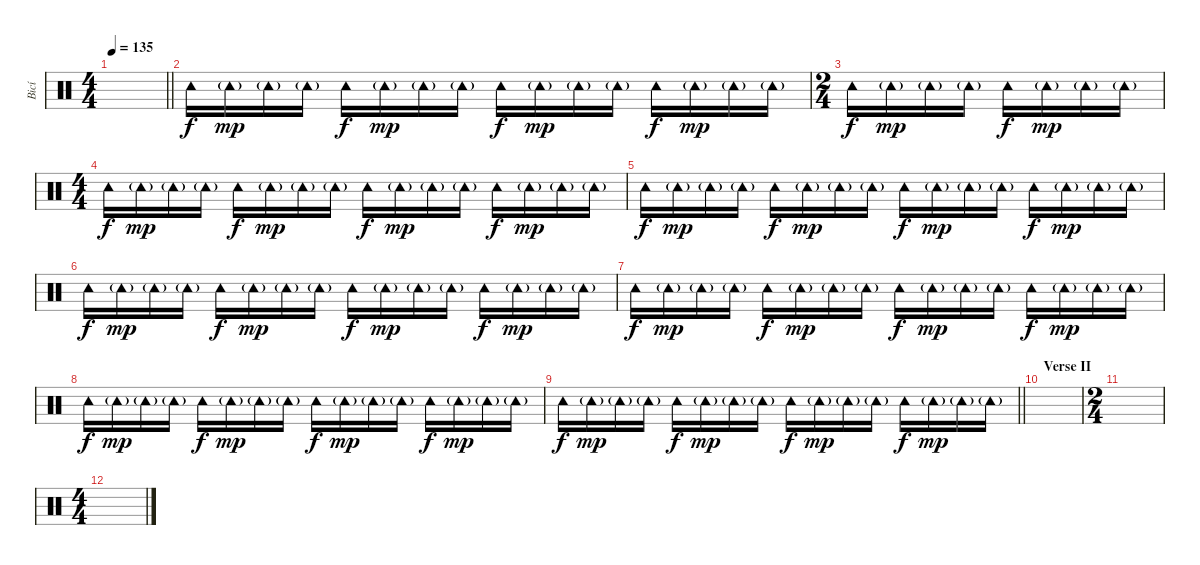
\track ("Bicí" "Bicí") {instrument percussion}
\staff {score}
\articulation defaults
\ts (4 4)
\tempo 135
\clef neutral
\barLineRight lightlight
\ks c
|
\section ("" "")
"Tambourine (hit)".16{dy f} "Tambourine (hit)"{g}.16{dy mp} "Tambourine (hit)"{g}.16 "Tambourine (hit)"{g}.16 "Tambourine (hit)".16{dy f} "Tambourine (hit)"{g}.16{dy mp} "Tambourine (hit)"{g}.16 "Tambourine (hit)"{g}.16 "Tambourine (hit)".16{dy f} "Tambourine (hit)"{g}.16{dy mp} "Tambourine (hit)"{g}.16 "Tambourine (hit)"{g}.16 "Tambourine (hit)".16{dy f} "Tambourine (hit)"{g}.16{dy mp} "Tambourine (hit)"{g}.16 "Tambourine (hit)"{g}.16 |
\ts (2 4)
"Tambourine (hit)".16{dy f} "Tambourine (hit)"{g}.16{dy mp} "Tambourine (hit)"{g}.16 "Tambourine (hit)"{g}.16 "Tambourine (hit)".16{dy f} "Tambourine (hit)"{g}.16{dy mp} "Tambourine (hit)"{g}.16 "Tambourine (hit)"{g}.16 |
\ts (4 4)
"Tambourine (hit)".16{dy f} "Tambourine (hit)"{g}.16{dy mp} "Tambourine (hit)"{g}.16 "Tambourine (hit)"{g}.16 "Tambourine (hit)".16{dy f} "Tambourine (hit)"{g}.16{dy mp} "Tambourine (hit)"{g}.16 "Tambourine (hit)"{g}.16 "Tambourine (hit)".16{dy f} "Tambourine (hit)"{g}.16{dy mp} "Tambourine (hit)"{g}.16 "Tambourine (hit)"{g}.16 "Tambourine (hit)".16{dy f} "Tambourine (hit)"{g}.16{dy mp} "Tambourine (hit)"{g}.16 "Tambourine (hit)"{g}.16 |
"Tambourine (hit)".16{dy f} "Tambourine (hit)"{g}.16{dy mp} "Tambourine (hit)"{g}.16 "Tambourine (hit)"{g}.16 "Tambourine (hit)".16{dy f} "Tambourine (hit)"{g}.16{dy mp} "Tambourine (hit)"{g}.16 "Tambourine (hit)"{g}.16 "Tambourine (hit)".16{dy f} "Tambourine (hit)"{g}.16{dy mp} "Tambourine (hit)"{g}.16 "Tambourine (hit)"{g}.16 "Tambourine (hit)".16{dy f} "Tambourine (hit)"{g}.16{dy mp} "Tambourine (hit)"{g}.16 "Tambourine (hit)"{g}.16 |
"Tambourine (hit)".16{dy f} "Tambourine (hit)"{g}.16{dy mp} "Tambourine (hit)"{g}.16 "Tambourine (hit)"{g}.16 "Tambourine (hit)".16{dy f} "Tambourine (hit)"{g}.16{dy mp} "Tambourine (hit)"{g}.16 "Tambourine (hit)"{g}.16 "Tambourine (hit)".16{dy f} "Tambourine (hit)"{g}.16{dy mp} "Tambourine (hit)"{g}.16 "Tambourine (hit)"{g}.16 "Tambourine (hit)".16{dy f} "Tambourine (hit)"{g}.16{dy mp} "Tambourine (hit)"{g}.16 "Tambourine (hit)"{g}.16 |
"Tambourine (hit)".16{dy f} "Tambourine (hit)"{g}.16{dy mp} "Tambourine (hit)"{g}.16 "Tambourine (hit)"{g}.16 "Tambourine (hit)".16{dy f} "Tambourine (hit)"{g}.16{dy mp} "Tambourine (hit)"{g}.16 "Tambourine (hit)"{g}.16 "Tambourine (hit)".16{dy f} "Tambourine (hit)"{g}.16{dy mp} "Tambourine (hit)"{g}.16 "Tambourine (hit)"{g}.16 "Tambourine (hit)".16{dy f} "Tambourine (hit)"{g}.16{dy mp} "Tambourine (hit)"{g}.16 "Tambourine (hit)"{g}.16 |
"Tambourine (hit)".16{dy f} "Tambourine (hit)"{g}.16{dy mp} "Tambourine (hit)"{g}.16 "Tambourine (hit)"{g}.16 "Tambourine (hit)".16{dy f} "Tambourine (hit)"{g}.16{dy mp} "Tambourine (hit)"{g}.16 "Tambourine (hit)"{g}.16 "Tambourine (hit)".16{dy f} "Tambourine (hit)"{g}.16{dy mp} "Tambourine (hit)"{g}.16 "Tambourine (hit)"{g}.16 "Tambourine (hit)".16{dy f} "Tambourine (hit)"{g}.16{dy mp} "Tambourine (hit)"{g}.16 "Tambourine (hit)"{g}.16 |
\barLineRight lightlight "Tambourine (hit)".16{dy f} "Tambourine (hit)"{g}.16{dy mp} "Tambourine (hit)"{g}.16 "Tambourine (hit)"{g}.16 "Tambourine (hit)".16{dy f} "Tambourine (hit)"{g}.16{dy mp} "Tambourine (hit)"{g}.16 "Tambourine (hit)"{g}.16 "Tambourine (hit)".16{dy f} "Tambourine (hit)"{g}.16{dy mp} "Tambourine (hit)"{g}.16 "Tambourine (hit)"{g}.16 "Tambourine (hit)".16{dy f} "Tambourine (hit)"{g}.16{dy mp} "Tambourine (hit)"{g}.16 "Tambourine (hit)"{g}.16
|
\section ("" "Verse II")
|
\ts (2 4)
|
\ts (4 4)
